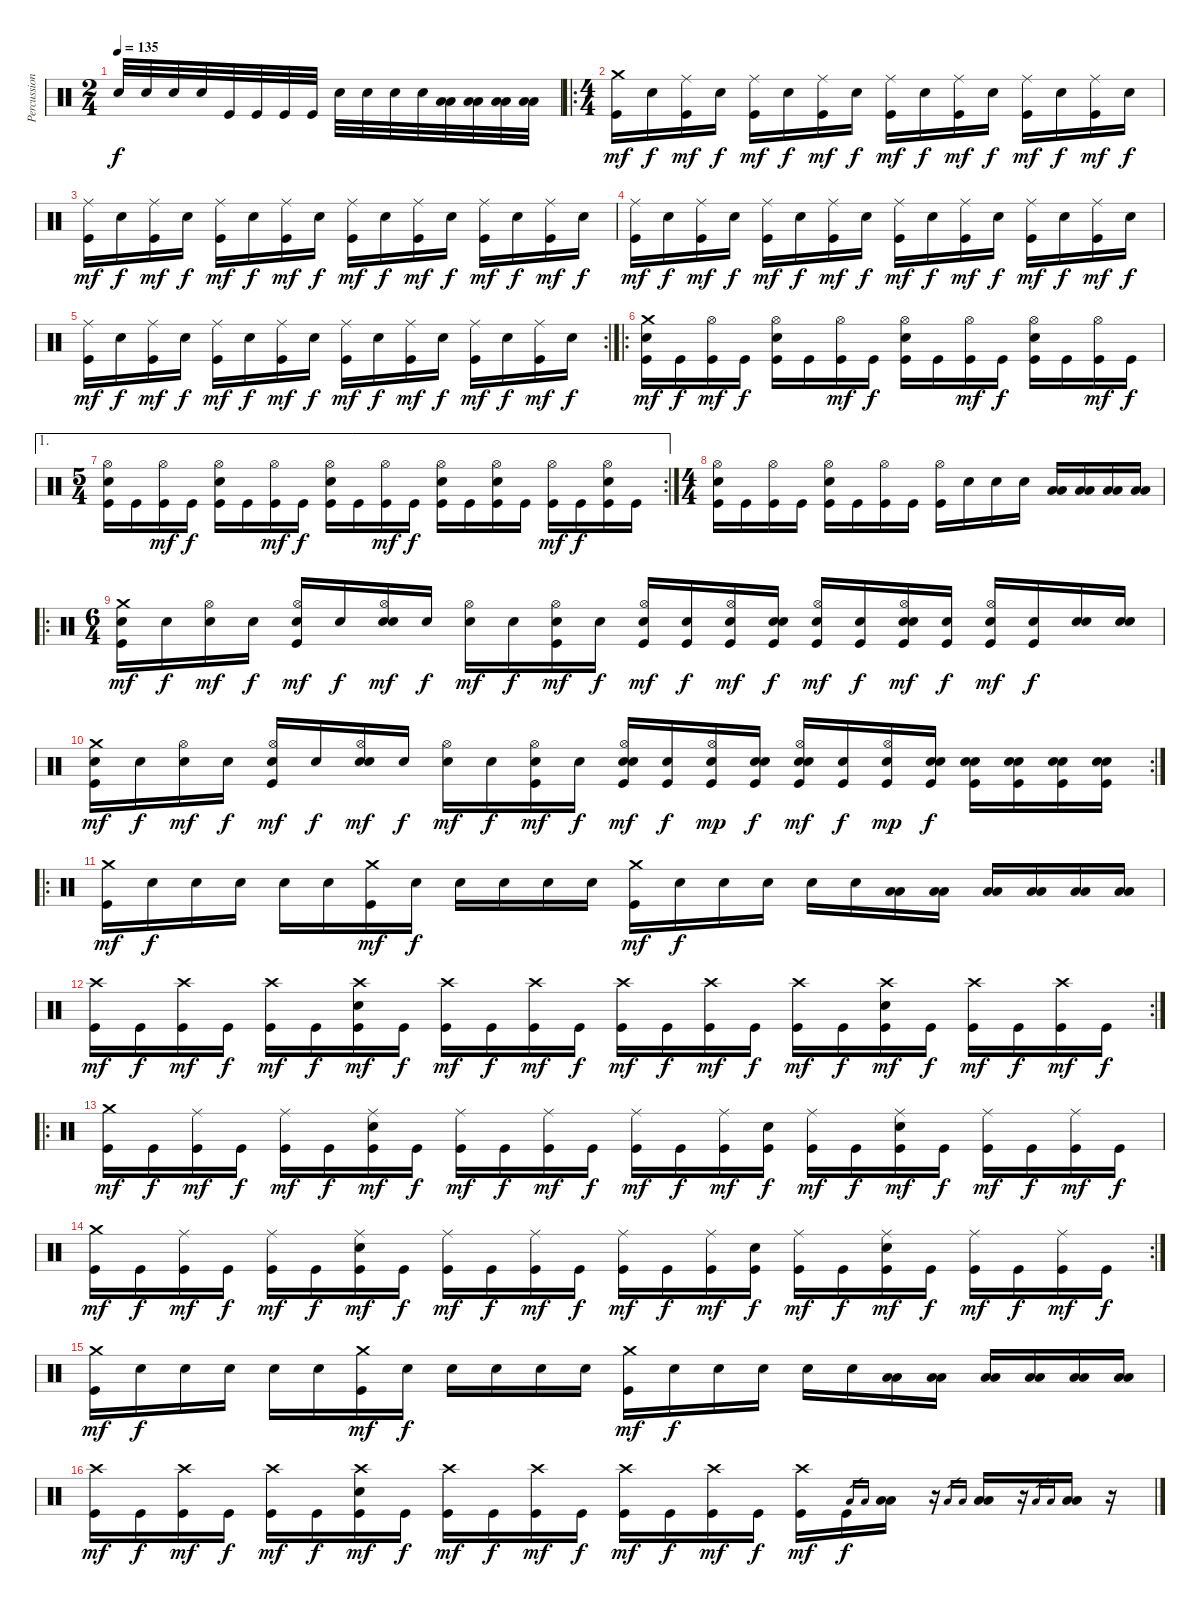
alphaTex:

\track ("Percussion" "Percussion") {instrument percussion}
\staff {score}
\articulation defaults
\ts (2 4)
\tempo 135
\clef neutral
\ks c "Electric Snare (hit)".32{dy f} "Electric Snare (hit)".32 "Electric Snare (hit)".32 "Electric Snare (hit)".32 "Kick (hit)".32 "Kick (hit)".32 "Kick (hit)".32 "Kick (hit)".32 "Electric Snare (hit)".32 "Electric Snare (hit)".32 "Electric Snare (hit)".32 "Electric Snare (hit)".32
("Low Tom (hit)" "Low Tom (hit)").32 ("Low Tom (hit)" "Low Tom (hit)").32 ("Low Tom (hit)" "Low Tom (hit)").32 ("Low Tom (hit)" "Low Tom (hit)").32 |
\ro
\ts (4 4)
("Crash medium (hit)" "Kick (hit)").16{dy mf} "Electric Snare (hit)".16{dy f} ("Ride (middle)" "Kick (hit)").16{dy mf} "Electric Snare (hit)".16{dy f} ("Ride (middle)" "Kick (hit)").16{dy mf} "Electric Snare (hit)".16{dy f} ("Ride (middle)" "Kick (hit)").16{dy mf} "Electric Snare (hit)".16{dy f} ("Ride (middle)" "Kick (hit)").16{dy mf} "Electric Snare (hit)".16{dy f} ("Ride (middle)" "Kick (hit)").16{dy mf} "Electric Snare (hit)".16{dy f} ("Ride (middle)" "Kick (hit)").16{dy mf} "Electric Snare (hit)".16{dy f} ("Ride (middle)" "Kick (hit)").16{dy mf} "Electric Snare (hit)".16{dy f} |
("Ride (middle)" "Kick (hit)").16{dy mf} "Electric Snare (hit)".16{dy f} ("Ride (middle)" "Kick (hit)").16{dy mf} "Electric Snare (hit)".16{dy f} ("Ride (middle)" "Kick (hit)").16{dy mf} "Electric Snare (hit)".16{dy f} ("Ride (middle)" "Kick (hit)").16{dy mf} "Electric Snare (hit)".16{dy f} ("Ride (middle)" "Kick (hit)").16{dy mf} "Electric Snare (hit)".16{dy f} ("Ride (middle)" "Kick (hit)").16{dy mf} "Electric Snare (hit)".16{dy f} ("Ride (middle)" "Kick (hit)").16{dy mf} "Electric Snare (hit)".16{dy f} ("Ride (middle)" "Kick (hit)").16{dy mf} "Electric Snare (hit)".16{dy f} |
("Ride (middle)" "Kick (hit)").16{dy mf} "Electric Snare (hit)".16{dy f} ("Ride (middle)" "Kick (hit)").16{dy mf} "Electric Snare (hit)".16{dy f} ("Ride (middle)" "Kick (hit)").16{dy mf} "Electric Snare (hit)".16{dy f} ("Ride (middle)" "Kick (hit)").16{dy mf} "Electric Snare (hit)".16{dy f} ("Ride (middle)" "Kick (hit)").16{dy mf} "Electric Snare (hit)".16{dy f} ("Ride (middle)" "Kick (hit)").16{dy mf} "Electric Snare (hit)".16{dy f} ("Ride (middle)" "Kick (hit)").16{dy mf} "Electric Snare (hit)".16{dy f} ("Ride (middle)" "Kick (hit)").16{dy mf} "Electric Snare (hit)".16{dy f} |
\rc 2
("Ride (middle)" "Kick (hit)").16{dy mf} "Electric Snare (hit)".16{dy f} ("Ride (middle)" "Kick (hit)").16{dy mf} "Electric Snare (hit)".16{dy f} ("Ride (middle)" "Kick (hit)").16{dy mf} "Electric Snare (hit)".16{dy f} ("Ride (middle)" "Kick (hit)").16{dy mf} "Electric Snare (hit)".16{dy f} ("Ride (middle)" "Kick (hit)").16{dy mf} "Electric Snare (hit)".16{dy f} ("Ride (middle)" "Kick (hit)").16{dy mf} "Electric Snare (hit)".16{dy f} ("Ride (middle)" "Kick (hit)").16{dy mf} "Electric Snare (hit)".16{dy f} ("Ride (middle)" "Kick (hit)").16{dy mf} "Electric Snare (hit)".16{dy f} |
\ro
("Crash medium (hit)" "Electric Snare (hit)" "Kick (hit)").16{dy mf} "Kick (hit)".16{dy f} ("Hi-Hat (open)" "Kick (hit)").16{dy mf} "Kick (hit)".16{dy f} ("Hi-Hat (open)" "Electric Snare (hit)" "Kick (hit)").16 "Kick (hit)".16 ("Hi-Hat (open)" "Kick (hit)").16{dy mf} "Kick (hit)".16{dy f} ("Hi-Hat (open)" "Electric Snare (hit)" "Kick (hit)").16 "Kick (hit)".16 ("Hi-Hat (open)" "Kick (hit)").16{dy mf} "Kick (hit)".16{dy f} ("Hi-Hat (open)" "Electric Snare (hit)" "Kick (hit)").16 "Kick (hit)".16 ("Hi-Hat (open)" "Kick (hit)").16{dy mf} "Kick (hit)".16{dy f} |
\ae 1
\rc 2
\ts (5 4)
("Hi-Hat (open)" "Electric Snare (hit)" "Kick (hit)").16 "Kick (hit)".16 ("Hi-Hat (open)" "Kick (hit)").16{dy mf} "Kick (hit)".16{dy f} ("Hi-Hat (open)" "Electric Snare (hit)" "Kick (hit)").16 "Kick (hit)".16 ("Hi-Hat (open)" "Kick (hit)").16{dy mf} "Kick (hit)".16{dy f} ("Hi-Hat (open)" "Electric Snare (hit)" "Kick (hit)").16 "Kick (hit)".16 ("Hi-Hat (open)" "Kick (hit)").16{dy mf} "Kick (hit)".16{dy f} ("Hi-Hat (open)" "Electric Snare (hit)" "Kick (hit)").16 "Kick (hit)".16 ("Hi-Hat (open)" "Electric Snare (hit)" "Kick (hit)").16 "Kick (hit)".16 ("Hi-Hat (open)" "Kick (hit)").16{dy mf} "Kick (hit)".16{dy f} ("Hi-Hat (open)" "Electric Snare (hit)" "Kick (hit)").16 "Kick (hit)".16 |
\ts (4 4)
("Hi-Hat (open)" "Electric Snare (hit)" "Kick (hit)").16 "Kick (hit)".16 ("Hi-Hat (open)" "Kick (hit)").16 "Kick (hit)".16 ("Hi-Hat (open)" "Electric Snare (hit)" "Kick (hit)").16 "Kick (hit)".16 ("Hi-Hat (open)" "Kick (hit)").16 "Kick (hit)".16 ("Hi-Hat (open)" "Kick (hit)").16 "Electric Snare (hit)".16 "Electric Snare (hit)".16 "Electric Snare (hit)".16 ("Low Tom (hit)" "Low Tom (hit)").16 ("Low Tom (hit)" "Low Tom (hit)").16 ("Low Tom (hit)" "Low Tom (hit)").16 ("Low Tom (hit)" "Low Tom (hit)").16 |
\ro
\ts (6 4)
("Snare (hit)"{x} "Crash medium (hit)" "Kick (hit)").16{dy mf} "Snare (hit)"{x}.16{dy f} ("Snare (hit)"{x} "Hi-Hat (open)").16{dy mf} "Snare (hit)"{x}.16{dy f} ("Snare (hit)"{x} "Hi-Hat (open)" "Kick (hit)").16{dy mf} "Snare (hit)"{x}.16{dy f} ("Snare (hit)"{x} "Hi-Hat (open)" "Electric Snare (hit)").16{dy mf} "Snare (hit)"{x}.16{dy f} ("Snare (hit)"{x} "Hi-Hat (open)").16{dy mf} "Snare (hit)"{x}.16{dy f} ("Snare (hit)"{x} "Hi-Hat (open)" "Kick (hit)").16{dy mf} "Snare (hit)"{x}.16{dy f} ("Snare (hit)"{x} "Hi-Hat (open)" "Kick (hit)").16{dy mf} ("Snare (hit)"{x} "Kick (hit)").16{dy f} ("Snare (hit)"{x} "Hi-Hat (open)" "Kick (hit)").16{dy mf} ("Snare (hit)"{x} "Electric Snare (hit)" "Kick (hit)").16{dy f} ("Snare (hit)"{x} "Hi-Hat (open)" "Kick (hit)").16{dy mf} ("Snare (hit)"{x} "Kick (hit)").16{dy f} ("Snare (hit)"{x} "Hi-Hat (open)" "Electric Snare (hit)" "Kick (hit)").16{dy mf} ("Snare (hit)"{x} "Kick (hit)").16{dy f} ("Snare (hit)"{x} "Hi-Hat (open)" "Kick (hit)").16{dy mf} ("Snare (hit)"{x} "Kick (hit)").16{dy f} ("Snare (hit)"{x} "Electric Snare (hit)").16 ("Snare (hit)"{x} "Electric Snare (hit)").16 |
\rc 2
("Snare (hit)"{x} "Crash medium (hit)" "Kick (hit)").16{dy mf} "Snare (hit)"{x}.16{dy f} ("Snare (hit)"{x} "Hi-Hat (open)").16{dy mf} "Snare (hit)"{x}.16{dy f} ("Snare (hit)"{x} "Hi-Hat (open)" "Kick (hit)").16{dy mf} "Snare (hit)"{x}.16{dy f} ("Snare (hit)"{x} "Hi-Hat (open)" "Electric Snare (hit)").16{dy mf} "Snare (hit)"{x}.16{dy f} ("Snare (hit)"{x} "Hi-Hat (open)").16{dy mf} "Snare (hit)"{x}.16{dy f} ("Snare (hit)"{x} "Hi-Hat (open)" "Kick (hit)").16{dy mf} "Snare (hit)"{x}.16{dy f} ("Snare (hit)"{x} "Hi-Hat (open)" "Electric Snare (hit)" "Kick (hit)").16{dy mf} ("Snare (hit)"{x} "Kick (hit)").16{dy f} ("Snare (hit)"{x} "Hi-Hat (open)" "Kick (hit)").16{dy mp} ("Snare (hit)"{x} "Electric Snare (hit)" "Kick (hit)").16{dy f} ("Snare (hit)"{x} "Hi-Hat (open)" "Electric Snare (hit)" "Kick (hit)").16{dy mf} ("Snare (hit)"{x} "Kick (hit)").16{dy f} ("Snare (hit)"{x} "Hi-Hat (open)" "Kick (hit)").16{dy mp} ("Snare (hit)"{x} "Electric Snare (hit)" "Kick (hit)").16{dy f} ("Snare (hit)"{x} "Electric Snare (hit)" "Kick (hit)").16 ("Snare (hit)"{x} "Electric Snare (hit)" "Kick (hit)").16 ("Snare (hit)"{x} "Electric Snare (hit)" "Kick (hit)").16 ("Snare (hit)"{x} "Electric Snare (hit)" "Kick (hit)").16 |
\ro
("Crash medium (hit)" "Kick (hit)").16{dy mf} "Electric Snare (hit)".16{dy f} "Electric Snare (hit)".16 "Electric Snare (hit)".16 "Electric Snare (hit)".16 "Electric Snare (hit)".16 ("Crash medium (hit)" "Kick (hit)").16{dy mf} "Electric Snare (hit)".16{dy f} "Electric Snare (hit)".16 "Electric Snare (hit)".16 "Electric Snare (hit)".16 "Electric Snare (hit)".16 ("Crash medium (hit)" "Kick (hit)").16{dy mf} "Electric Snare (hit)".16{dy f} "Electric Snare (hit)".16 "Electric Snare (hit)".16 "Electric Snare (hit)".16 "Electric Snare (hit)".16 ("Low Tom (hit)" "Low Tom (hit)").16 ("Low Tom (hit)" "Low Tom (hit)").16 ("Low Tom (hit)" "Low Tom (hit)").16 ("Low Tom (hit)" "Low Tom (hit)").16 ("Low Tom (hit)" "Low Tom (hit)").16 ("Low Tom (hit)" "Low Tom (hit)").16 |
\rc 2
("Crash high (hit)" "Kick (hit)").16{dy mf} "Kick (hit)".16{dy f} ("Crash high (hit)" "Kick (hit)").16{dy mf} "Kick (hit)".16{dy f} ("Crash high (hit)" "Kick (hit)").16{dy mf} "Kick (hit)".16{dy f} ("Crash high (hit)" "Electric Snare (hit)" "Kick (hit)").16{dy mf} "Kick (hit)".16{dy f} ("Crash high (hit)" "Kick (hit)").16{dy mf} "Kick (hit)".16{dy f} ("Crash high (hit)" "Kick (hit)").16{dy mf} "Kick (hit)".16{dy f} ("Crash high (hit)" "Kick (hit)").16{dy mf} "Kick (hit)".16{dy f} ("Crash high (hit)" "Kick (hit)").16{dy mf} "Kick (hit)".16{dy f} ("Crash high (hit)" "Kick (hit)").16{dy mf} "Kick (hit)".16{dy f} ("Crash high (hit)" "Electric Snare (hit)" "Kick (hit)").16{dy mf} "Kick (hit)".16{dy f} ("Crash high (hit)" "Kick (hit)").16{dy mf} "Kick (hit)".16{dy f} ("Crash high (hit)" "Kick (hit)").16{dy mf} "Kick (hit)".16{dy f} |
\ro
("Crash medium (hit)" "Kick (hit)").16{dy mf} "Kick (hit)".16{dy f} ("Ride (middle)" "Kick (hit)").16{dy mf} "Kick (hit)".16{dy f} ("Ride (middle)" "Kick (hit)").16{dy mf} "Kick (hit)".16{dy f} ("Ride (middle)" "Electric Snare (hit)" "Kick (hit)").16{dy mf} "Kick (hit)".16{dy f} ("Ride (middle)" "Kick (hit)").16{dy mf} "Kick (hit)".16{dy f} ("Ride (middle)" "Kick (hit)").16{dy mf} "Kick (hit)".16{dy f} ("Ride (middle)" "Kick (hit)").16{dy mf} "Kick (hit)".16{dy f} ("Ride (middle)" "Kick (hit)").16{dy mf} ("Electric Snare (hit)" "Kick (hit)").16{dy f} ("Ride (middle)" "Kick (hit)").16{dy mf} "Kick (hit)".16{dy f} ("Ride (middle)" "Electric Snare (hit)" "Kick (hit)").16{dy mf} "Kick (hit)".16{dy f} ("Ride (middle)" "Kick (hit)").16{dy mf} "Kick (hit)".16{dy f} ("Ride (middle)" "Kick (hit)").16{dy mf} "Kick (hit)".16{dy f} |
\rc 2
("Crash medium (hit)" "Kick (hit)").16{dy mf} "Kick (hit)".16{dy f} ("Ride (middle)" "Kick (hit)").16{dy mf} "Kick (hit)".16{dy f} ("Ride (middle)" "Kick (hit)").16{dy mf} "Kick (hit)".16{dy f} ("Ride (middle)" "Electric Snare (hit)" "Kick (hit)").16{dy mf} "Kick (hit)".16{dy f} ("Ride (middle)" "Kick (hit)").16{dy mf} "Kick (hit)".16{dy f} ("Ride (middle)" "Kick (hit)").16{dy mf} "Kick (hit)".16{dy f} ("Ride (middle)" "Kick (hit)").16{dy mf} "Kick (hit)".16{dy f} ("Ride (middle)" "Kick (hit)").16{dy mf} ("Electric Snare (hit)" "Kick (hit)").16{dy f} ("Ride (middle)" "Kick (hit)").16{dy mf} "Kick (hit)".16{dy f} ("Ride (middle)" "Electric Snare (hit)" "Kick (hit)").16{dy mf} "Kick (hit)".16{dy f} ("Ride (middle)" "Kick (hit)").16{dy mf} "Kick (hit)".16{dy f} ("Ride (middle)" "Kick (hit)").16{dy mf} "Kick (hit)".16{dy f} |
("Crash medium (hit)" "Kick (hit)").16{dy mf} "Electric Snare (hit)".16{dy f} "Electric Snare (hit)".16 "Electric Snare (hit)".16 "Electric Snare (hit)".16 "Electric Snare (hit)".16 ("Crash medium (hit)" "Kick (hit)").16{dy mf} "Electric Snare (hit)".16{dy f} "Electric Snare (hit)".16 "Electric Snare (hit)".16 "Electric Snare (hit)".16 "Electric Snare (hit)".16 ("Crash medium (hit)" "Kick (hit)").16{dy mf} "Electric Snare (hit)".16{dy f} "Electric Snare (hit)".16 "Electric Snare (hit)".16 "Electric Snare (hit)".16 "Electric Snare (hit)".16 ("Low Tom (hit)" "Low Tom (hit)").16 ("Low Tom (hit)" "Low Tom (hit)").16 ("Low Tom (hit)" "Low Tom (hit)").16 ("Low Tom (hit)" "Low Tom (hit)").16 ("Low Tom (hit)" "Low Tom (hit)").16 ("Low Tom (hit)" "Low Tom (hit)").16 |
("Crash high (hit)" "Kick (hit)").16{dy mf} "Kick (hit)".16{dy f} ("Crash high (hit)" "Kick (hit)").16{dy mf} "Kick (hit)".16{dy f} ("Crash high (hit)" "Kick (hit)").16{dy mf} "Kick (hit)".16{dy f} ("Crash high (hit)" "Electric Snare (hit)" "Kick (hit)").16{dy mf} "Kick (hit)".16{dy f} ("Crash high (hit)" "Kick (hit)").16{dy mf} "Kick (hit)".16{dy f} ("Crash high (hit)" "Kick (hit)").16{dy mf} "Kick (hit)".16{dy f} ("Crash high (hit)" "Kick (hit)").16{dy mf} "Kick (hit)".16{dy f} ("Crash high (hit)" "Kick (hit)").16{dy mf} "Kick (hit)".16{dy f} ("Crash high (hit)" "Kick (hit)").16{dy mf} "Kick (hit)".16{dy f} "Low Tom (hit)".16{gr} "Low Tom (hit)".16{gr} ("Low Tom (hit)" "Low Tom (hit)").16 r.16 "Low Tom (hit)".16{gr} "Low Tom (hit)".16{gr} ("Low Tom (hit)" "Low Tom (hit)").16 r.16 "Low Tom (hit)".16{gr} "Low Tom (hit)".16{gr} ("Low Tom (hit)" "Low Tom (hit)").16 r.16
